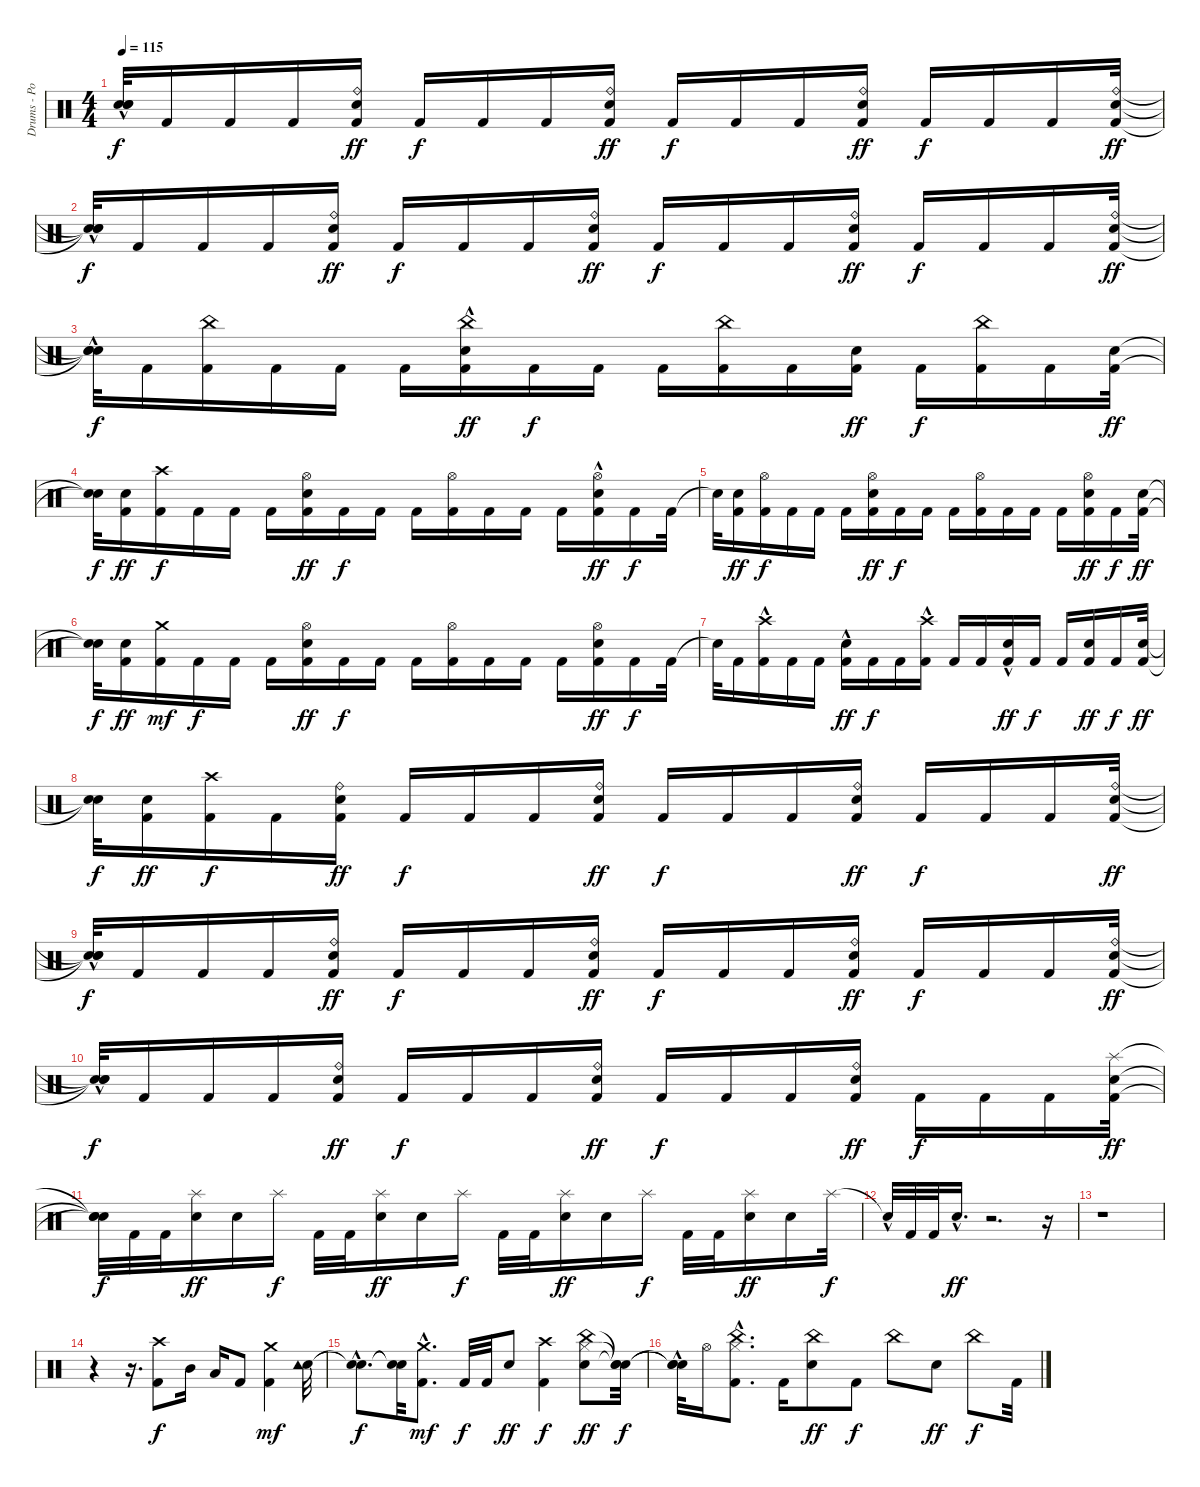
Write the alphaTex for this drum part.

\track ("Drums - Portnoy" "Drums - Po") {instrument percussion}
\staff {score}
\articulation defaults
\ts (4 4)
\tempo 115
\clef neutral
\ks c
("Snare (hit)"{t} "Snare (hit)"{hac t} "Snare (hit)"{hac t}).32{dy f} "Kick (hit) 2".16 "Kick (hit) 2".16 "Kick (hit) 2".16 ("Kick (hit) 2" "Ride (bell)" "Electric Snare (hit)").16{dy ff} "Kick (hit) 2".16{dy f} "Kick (hit) 2".16 "Kick (hit) 2".16 ("Kick (hit) 2" "Ride (bell)" "Electric Snare (hit)").16{dy ff} "Kick (hit) 2".16{dy f} "Kick (hit) 2".16 "Kick (hit) 2".16 ("Kick (hit) 2" "Ride (bell)" "Electric Snare (hit)").16{dy ff} "Kick (hit) 2".16{dy f} "Kick (hit) 2".16 "Kick (hit) 2".16 ("Kick (hit) 2" "Ride (bell)" "Electric Snare (hit)").32{dy ff} |
("Snare (hit)"{t} "Snare (hit)"{hac t} "Snare (hit)"{hac t}).32{dy f} "Kick (hit) 2".16 "Kick (hit) 2".16 "Kick (hit) 2".16 ("Kick (hit) 2" "Ride (bell)" "Electric Snare (hit)").16{dy ff} "Kick (hit) 2".16{dy f} "Kick (hit) 2".16 "Kick (hit) 2".16 ("Kick (hit) 2" "Ride (bell)" "Electric Snare (hit)").16{dy ff} "Kick (hit) 2".16{dy f} "Kick (hit) 2".16 "Kick (hit) 2".16 ("Kick (hit) 2" "Ride (bell)" "Electric Snare (hit)").16{dy ff} "Kick (hit) 2".16{dy f} "Kick (hit) 2".16 "Kick (hit) 2".16 ("Kick (hit) 2" "Ride (bell)" "Electric Snare (hit)").32{dy ff} |
("Snare (hit)"{t} "Snare (hit)"{hac t} "Snare (hit)"{hac t}).32{dy f} "Kick (hit) 2".16 ("Kick (hit) 2" "China (hit)").16 "Kick (hit) 2".16 "Kick (hit) 2".16 "Kick (hit) 2".16 ("Kick (hit) 2" "Electric Snare (hit)"{hac} "China (hit)").16{dy ff} "Kick (hit) 2".16{dy f} "Kick (hit) 2".16 "Kick (hit) 2".16 ("Kick (hit) 2" "China (hit)").16 "Kick (hit) 2".16 ("Kick (hit) 2" "Electric Snare (hit)").16{dy ff} "Kick (hit) 2".16{dy f} ("Kick (hit) 2" "China (hit)").16 "Kick (hit) 2".16 ("Kick (hit) 2" "Electric Snare (hit)").32{dy ff} |
("Snare (hit)"{t} "Snare (hit)"{t}).32{dy f} ("Kick (hit) 2" "Electric Snare (hit)").16{dy ff} ("Kick (hit) 2" "Crash high (hit)").16{dy f} "Kick (hit) 2".16 "Kick (hit) 2".16 "Kick (hit) 2".16 ("Kick (hit) 2" "Hi-Hat (open)" "Electric Snare (hit)").16{dy ff} "Kick (hit) 2".16{dy f} "Kick (hit) 2".16 "Kick (hit) 2".16 ("Kick (hit) 2" "Hi-Hat (open)").16 "Kick (hit) 2".16 "Kick (hit) 2".16 "Kick (hit) 2".16 ("Kick (hit) 2" "Hi-Hat (open)" "Electric Snare (hit)"{hac}).16{dy ff} "Kick (hit) 2".16{dy f} "Kick (hit) 2".32 |
"Snare (hit)"{t}.32 ("Kick (hit) 2" "Electric Snare (hit)").16{dy ff} ("Kick (hit) 2" "Hi-Hat (open)").16{dy f} "Kick (hit) 2".16 "Kick (hit) 2".16 "Kick (hit) 2".16 ("Kick (hit) 2" "Hi-Hat (open)" "Electric Snare (hit)").16{dy ff} "Kick (hit) 2".16{dy f} "Kick (hit) 2".16 "Kick (hit) 2".16 ("Kick (hit) 2" "Hi-Hat (open)").16 "Kick (hit) 2".16 "Kick (hit) 2".16 "Kick (hit) 2".16 ("Kick (hit) 2" "Hi-Hat (open)" "Electric Snare (hit)").16{dy ff} "Kick (hit) 2".16{dy f} ("Kick (hit) 2" "Electric Snare (hit)").32{dy ff} |
("Snare (hit)"{t} "Snare (hit)"{t}).32{dy f} ("Kick (hit) 2" "Electric Snare (hit)").16{dy ff} ("Kick (hit) 2" "Crash medium (hit)").16{dy mf} "Kick (hit) 2".16{dy f} "Kick (hit) 2".16 "Kick (hit) 2".16 ("Kick (hit) 2" "Hi-Hat (open)" "Electric Snare (hit)").16{dy ff} "Kick (hit) 2".16{dy f} "Kick (hit) 2".16 "Kick (hit) 2".16 ("Kick (hit) 2" "Hi-Hat (open)").16 "Kick (hit) 2".16 "Kick (hit) 2".16 "Kick (hit) 2".16 ("Kick (hit) 2" "Hi-Hat (open)" "Electric Snare (hit)").16{dy ff} "Kick (hit) 2".16{dy f} "Kick (hit) 2".32 |
"Snare (hit)"{t}.32 "Kick (hit) 2".16 ("Kick (hit) 2" "Crash high (hit)"{hac}).16 "Kick (hit) 2".16 "Kick (hit) 2".16 ("Kick (hit) 2" "Electric Snare (hit)"{hac}).16{dy ff} "Kick (hit) 2".16{dy f} "Kick (hit) 2".16 ("Kick (hit) 2" "Crash high (hit)"{hac}).16 "Kick (hit) 2".16 "Kick (hit) 2".16 ("Kick (hit) 2" "Electric Snare (hit)"{hac}).16{dy ff} "Kick (hit) 2".16{dy f} "Kick (hit) 2".16 ("Kick (hit) 2" "Electric Snare (hit)").16{dy ff} "Kick (hit) 2".16{dy f} ("Kick (hit) 2" "Electric Snare (hit)").32{dy ff} |
("Snare (hit)"{t} "Snare (hit)"{t}).32{dy f} ("Kick (hit) 2" "Electric Snare (hit)").16{dy ff} ("Crash high (hit)" "Kick (hit) 2").16{dy f} "Kick (hit) 2".16 ("Kick (hit) 2" "Ride (bell)" "Electric Snare (hit)").16{dy ff} "Kick (hit) 2".16{dy f} "Kick (hit) 2".16 "Kick (hit) 2".16 ("Kick (hit) 2" "Ride (bell)" "Electric Snare (hit)").16{dy ff} "Kick (hit) 2".16{dy f} "Kick (hit) 2".16 "Kick (hit) 2".16 ("Kick (hit) 2" "Ride (bell)" "Electric Snare (hit)").16{dy ff} "Kick (hit) 2".16{dy f} "Kick (hit) 2".16 "Kick (hit) 2".16 ("Kick (hit) 2" "Ride (bell)" "Electric Snare (hit)").32{dy ff} |
("Snare (hit)"{t} "Snare (hit)"{hac t} "Snare (hit)"{hac t}).32{dy f} "Kick (hit) 2".16 "Kick (hit) 2".16 "Kick (hit) 2".16 ("Kick (hit) 2" "Ride (bell)" "Electric Snare (hit)").16{dy ff} "Kick (hit) 2".16{dy f} "Kick (hit) 2".16 "Kick (hit) 2".16 ("Kick (hit) 2" "Ride (bell)" "Electric Snare (hit)").16{dy ff} "Kick (hit) 2".16{dy f} "Kick (hit) 2".16 "Kick (hit) 2".16 ("Kick (hit) 2" "Ride (bell)" "Electric Snare (hit)").16{dy ff} "Kick (hit) 2".16{dy f} "Kick (hit) 2".16 "Kick (hit) 2".16 ("Kick (hit) 2" "Ride (bell)" "Electric Snare (hit)").32{dy ff} |
("Snare (hit)"{t} "Snare (hit)"{hac t} "Snare (hit)"{hac t}).32{dy f} "Kick (hit) 2".16 "Kick (hit) 2".16 "Kick (hit) 2".16 ("Kick (hit) 2" "Ride (bell)" "Electric Snare (hit)").16{dy ff} "Kick (hit) 2".16{dy f} "Kick (hit) 2".16 "Kick (hit) 2".16 ("Kick (hit) 2" "Ride (bell)" "Electric Snare (hit)").16{dy ff} "Kick (hit) 2".16{dy f} "Kick (hit) 2".16 "Kick (hit) 2".16 ("Kick (hit) 2" "Ride (bell)" "Electric Snare (hit)").16{dy ff} "Kick (hit) 2".16{dy f} "Kick (hit) 2".16 "Kick (hit) 2".16 ("Kick (hit) 2" "Splash (hit)" "Electric Snare (hit)").32{dy ff} |
("Snare (hit)"{t} "Snare (hit)"{t} "Snare (hit)"{t}).32{dy f} "Kick (hit) 2".32 "Kick (hit) 2".32 ("Splash (hit)" "Electric Snare (hit)").16{dy ff} "Electric Snare (hit)".16 "Splash (hit)".16{dy f} "Kick (hit) 2".32 "Kick (hit) 2".32 ("Splash (hit)" "Electric Snare (hit)").16{dy ff} "Electric Snare (hit)".16 "Splash (hit)".16{dy f} "Kick (hit) 2".32 "Kick (hit) 2".32 ("Splash (hit)" "Electric Snare (hit)").16{dy ff} "Electric Snare (hit)".16 "Splash (hit)".16{dy f} "Kick (hit) 2".32 "Kick (hit) 2".32 ("Splash (hit)" "Electric Snare (hit)").16{dy ff} "Electric Snare (hit)".16 "Splash (hit)".32{dy f} |
"Snare (hit)"{hac t}.32 "Kick (hit) 2".32 "Kick (hit) 2".32 "Electric Snare (hit)"{hac}.16{d dy ff} r.2{d} r.16 |
r.1 |
r.4 r.16{d} ("Crash high (hit)" "Kick (hit) 2").8{dy f} "Mid Tom (hit)".16 "Low Tom (hit)".16 "Kick (hit) 2".8 ("Kick (hit) 2" "Crash medium (hit)").4{dy mf} ("Electric Snare (hit)" "Tambourine (hit)").32 |
("Snare (hit)"{hac t} "Snare (hit)"{hac t}).8{d dy f} ("Snare (hit)"{t} "Snare (hit)"{t}).32 ("Kick (hit) 2"{hac} "Crash medium (hit)").8{d dy mf} "Kick (hit) 2".32{dy f} "Kick (hit) 2".32 "Electric Snare (hit)".8{dy ff} ("Crash high (hit)" "Kick (hit) 2").4{dy f} ("Hi-Hat (closed)" "Electric Snare (hit)" "China (hit)").8{dy ff} ("Snare (hit)"{t} "Snare (hit)"{t} "Snare (hit)"{t}).32{dy f} |
("Snare (hit)"{t} "Snare (hit)"{t} "Snare (hit)"{hac t}).32 "Hi-Hat (open)".16 ("Hi-Hat (closed)" "Kick (hit) 2"{hac} "China (hit)").8{d} "Kick (hit) 2".16 ("Electric Snare (hit)" "China (hit)").8{dy ff} "Kick (hit) 2".8{dy f} "China (hit)".8 "Electric Snare (hit)".8{dy ff} "China (hit)".8{dy f} "Kick (hit) 2".32
